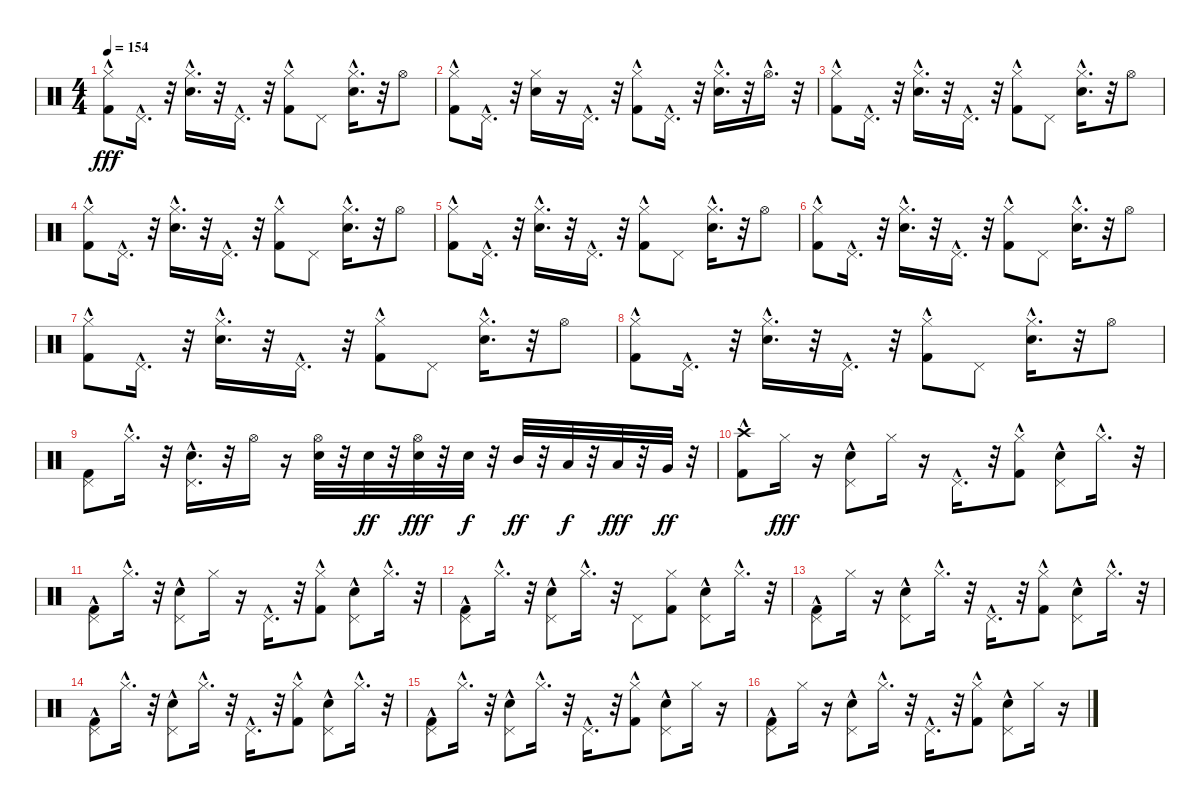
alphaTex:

\track "" {instrument percussion}
\staff {score}
\articulation defaults
\ts (4 4)
\tempo 154
\clef neutral
\ks c
("Kick (hit) 2" "Hi-Hat (closed)"{hac}).8{dy fff} "Pedal Hi-Hat (hit)"{hac}.16{d} r.32 ("Electric Snare (hit)"{hac} "Hi-Hat (closed)").16{d} r.32 "Pedal Hi-Hat (hit)"{hac}.16{d} r.32 ("Hi-Hat (closed)"{hac} "Kick (hit) 2").8 "Pedal Hi-Hat (hit)".8 ("Electric Snare (hit)"{hac} "Hi-Hat (closed)").16{d} r.32 "Hi-Hat (open)".8 |
("Kick (hit) 2" "Hi-Hat (closed)"{hac}).8 "Pedal Hi-Hat (hit)"{hac}.16{d} r.32 ("Electric Snare (hit)" "Hi-Hat (closed)").16 r.16 "Pedal Hi-Hat (hit)"{hac}.16{d} r.32 ("Hi-Hat (closed)"{hac} "Kick (hit) 2").8 "Pedal Hi-Hat (hit)"{hac}.16{d} r.32 ("Electric Snare (hit)"{hac} "Hi-Hat (closed)"{hac}).16{d} r.32 "Hi-Hat (open)"{hac}.16{d} r.32 |
("Kick (hit) 2" "Hi-Hat (closed)"{hac}).8 "Pedal Hi-Hat (hit)"{hac}.16{d} r.32 ("Electric Snare (hit)"{hac} "Hi-Hat (closed)").16{d} r.32 "Pedal Hi-Hat (hit)"{hac}.16{d} r.32 ("Hi-Hat (closed)"{hac} "Kick (hit) 2").8 "Pedal Hi-Hat (hit)".8 ("Electric Snare (hit)"{hac} "Hi-Hat (closed)").16{d} r.32 "Hi-Hat (open)".8 |
("Kick (hit) 2" "Hi-Hat (closed)"{hac}).8 "Pedal Hi-Hat (hit)"{hac}.16{d} r.32 ("Electric Snare (hit)"{hac} "Hi-Hat (closed)").16{d} r.32 "Pedal Hi-Hat (hit)"{hac}.16{d} r.32 ("Hi-Hat (closed)"{hac} "Kick (hit) 2").8 "Pedal Hi-Hat (hit)".8 ("Electric Snare (hit)"{hac} "Hi-Hat (closed)").16{d} r.32 "Hi-Hat (open)".8 |
("Kick (hit) 2" "Hi-Hat (closed)"{hac}).8 "Pedal Hi-Hat (hit)"{hac}.16{d} r.32 ("Electric Snare (hit)"{hac} "Hi-Hat (closed)").16{d} r.32 "Pedal Hi-Hat (hit)"{hac}.16{d} r.32 ("Hi-Hat (closed)"{hac} "Kick (hit) 2").8 "Pedal Hi-Hat (hit)".8 ("Electric Snare (hit)"{hac} "Hi-Hat (closed)").16{d} r.32 "Hi-Hat (open)".8 |
("Kick (hit) 2" "Hi-Hat (closed)"{hac}).8 "Pedal Hi-Hat (hit)"{hac}.16{d} r.32 ("Electric Snare (hit)"{hac} "Hi-Hat (closed)").16{d} r.32 "Pedal Hi-Hat (hit)"{hac}.16{d} r.32 ("Hi-Hat (closed)"{hac} "Kick (hit) 2").8 "Pedal Hi-Hat (hit)".8 ("Electric Snare (hit)"{hac} "Hi-Hat (closed)").16{d} r.32 "Hi-Hat (open)".8 |
("Kick (hit) 2" "Hi-Hat (closed)"{hac}).8 "Pedal Hi-Hat (hit)"{hac}.16{d} r.32 ("Electric Snare (hit)"{hac} "Hi-Hat (closed)").16{d} r.32 "Pedal Hi-Hat (hit)"{hac}.16{d} r.32 ("Hi-Hat (closed)"{hac} "Kick (hit) 2").8 "Pedal Hi-Hat (hit)".8 ("Electric Snare (hit)"{hac} "Hi-Hat (closed)").16{d} r.32 "Hi-Hat (open)".8 |
("Kick (hit) 2" "Hi-Hat (closed)"{hac}).8 "Pedal Hi-Hat (hit)"{hac}.16{d} r.32 ("Electric Snare (hit)"{hac} "Hi-Hat (closed)").16{d} r.32 "Pedal Hi-Hat (hit)"{hac}.16{d} r.32 ("Hi-Hat (closed)"{hac} "Kick (hit) 2").8 "Pedal Hi-Hat (hit)".8 ("Electric Snare (hit)"{hac} "Hi-Hat (closed)").16{d} r.32 "Hi-Hat (open)".8 |
("Pedal Hi-Hat (hit)" "Kick (hit) 2").8 "Hi-Hat (closed)"{hac}.16{d} r.32 ("Electric Snare (hit)"{hac} "Pedal Hi-Hat (hit)").16{d} r.32 "Hi-Hat (open)".16 r.16 ("Electric Snare (hit)" "Hi-Hat (open)").32 r.32 "Electric Snare (hit)".32{dy ff} r.32 ("Electric Snare (hit)" "Hi-Hat (open)").32{dy fff} r.32 "Electric Snare (hit)".32{dy f} r.32 "Mid Tom (hit)".32{dy ff} r.32 "Low Tom (hit)".32{dy f} r.32 "Low Tom (hit)".32{dy fff} r.32 "Very Low Tom (hit)".32{dy ff} r.32 |
("Kick (hit) 2"{hac} "Crash high (hit)").8 "Hi-Hat (closed)".16{dy fff} r.16 ("Pedal Hi-Hat (hit)"{hac} "Electric Snare (hit)").8 "Hi-Hat (closed)".16 r.16 "Pedal Hi-Hat (hit)"{hac}.16{d} r.32 ("Hi-Hat (closed)" "Kick (hit) 2"{hac}).8 ("Pedal Hi-Hat (hit)"{hac} "Electric Snare (hit)"{hac}).8 "Hi-Hat (closed)"{hac}.16{d} r.32 |
("Pedal Hi-Hat (hit)"{hac} "Kick (hit) 2").8 "Hi-Hat (closed)"{hac}.16{d} r.32 ("Pedal Hi-Hat (hit)"{hac} "Electric Snare (hit)").8 "Hi-Hat (closed)".16 r.16 "Pedal Hi-Hat (hit)"{hac}.16{d} r.32 ("Hi-Hat (closed)"{hac} "Kick (hit) 2").8 ("Pedal Hi-Hat (hit)"{hac} "Electric Snare (hit)").8 "Hi-Hat (closed)"{hac}.16{d} r.32 |
("Pedal Hi-Hat (hit)" "Kick (hit) 2"{hac}).8 "Hi-Hat (closed)"{hac}.16{d} r.32 ("Pedal Hi-Hat (hit)"{hac} "Electric Snare (hit)"{hac}).8 "Hi-Hat (closed)"{hac}.16{d} r.32 "Pedal Hi-Hat (hit)".8 ("Kick (hit) 2" "Hi-Hat (closed)").8 ("Pedal Hi-Hat (hit)"{hac} "Electric Snare (hit)").8 "Hi-Hat (closed)"{hac}.16{d} r.32 |
("Pedal Hi-Hat (hit)"{hac} "Kick (hit) 2"{hac}).8 "Hi-Hat (closed)".16 r.16 ("Pedal Hi-Hat (hit)"{hac} "Electric Snare (hit)"{hac}).8 "Hi-Hat (closed)"{hac}.16{d} r.32 "Pedal Hi-Hat (hit)"{hac}.16{d} r.32 ("Hi-Hat (closed)"{hac} "Kick (hit) 2"{hac}).8 ("Pedal Hi-Hat (hit)"{hac} "Electric Snare (hit)").8 "Hi-Hat (closed)"{hac}.16{d} r.32 |
("Pedal Hi-Hat (hit)"{hac} "Kick (hit) 2"{hac}).8 "Hi-Hat (closed)"{hac}.16{d} r.32 ("Pedal Hi-Hat (hit)"{hac} "Electric Snare (hit)").8 "Hi-Hat (closed)"{hac}.16{d} r.32 "Pedal Hi-Hat (hit)"{hac}.16{d} r.32 ("Hi-Hat (closed)"{hac} "Kick (hit) 2"{hac}).8 ("Pedal Hi-Hat (hit)"{hac} "Electric Snare (hit)").8 "Hi-Hat (closed)"{hac}.16{d} r.32 |
("Pedal Hi-Hat (hit)"{hac} "Kick (hit) 2").8 "Hi-Hat (closed)"{hac}.16{d} r.32 ("Pedal Hi-Hat (hit)"{hac} "Electric Snare (hit)"{hac}).8 "Hi-Hat (closed)"{hac}.16{d} r.32 "Pedal Hi-Hat (hit)"{hac}.16{d} r.32 ("Hi-Hat (closed)"{hac} "Kick (hit) 2").8 ("Pedal Hi-Hat (hit)"{hac} "Electric Snare (hit)").8 "Hi-Hat (closed)".16 r.16 |
("Kick (hit) 2" "Pedal Hi-Hat (hit)"{hac}).8 "Hi-Hat (closed)".16 r.16 ("Pedal Hi-Hat (hit)"{hac} "Electric Snare (hit)"{hac}).8 "Hi-Hat (closed)"{hac}.16{d} r.32 "Pedal Hi-Hat (hit)"{hac}.16{d} r.32 ("Kick (hit) 2" "Hi-Hat (closed)"{hac}).8 ("Electric Snare (hit)"{hac} "Pedal Hi-Hat (hit)"{hac}).8 "Hi-Hat (closed)".16 r.16
